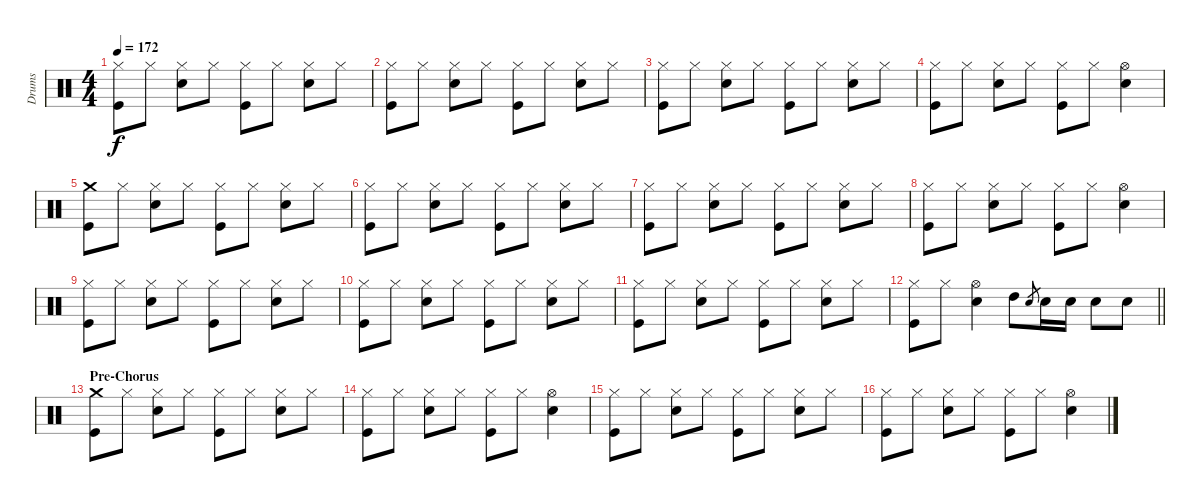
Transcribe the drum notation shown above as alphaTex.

\track ("Drums" "Drums") {instrument percussion}
\staff {score}
\articulation defaults
\ts (4 4)
\tempo 172
\clef neutral
\ks c
("Hi-Hat (closed)" "Kick (hit)").8{dy f} "Hi-Hat (closed)".8 ("Hi-Hat (closed)" "Snare (hit) 2").8 "Hi-Hat (closed)".8 ("Hi-Hat (closed)" "Kick (hit)").8 "Hi-Hat (closed)".8 ("Hi-Hat (closed)" "Snare (hit) 2").8 "Hi-Hat (closed)".8 |
("Hi-Hat (closed)" "Kick (hit)").8 "Hi-Hat (closed)".8 ("Hi-Hat (closed)" "Snare (hit) 2").8 "Hi-Hat (closed)".8 ("Hi-Hat (closed)" "Kick (hit)").8 "Hi-Hat (closed)".8 ("Hi-Hat (closed)" "Snare (hit) 2").8 "Hi-Hat (closed)".8 |
("Hi-Hat (closed)" "Kick (hit)").8 "Hi-Hat (closed)".8 ("Hi-Hat (closed)" "Snare (hit) 2").8 "Hi-Hat (closed)".8 ("Hi-Hat (closed)" "Kick (hit)").8 "Hi-Hat (closed)".8 ("Hi-Hat (closed)" "Snare (hit) 2").8 "Hi-Hat (closed)".8 |
("Hi-Hat (closed)" "Kick (hit)").8 "Hi-Hat (closed)".8 ("Hi-Hat (closed)" "Snare (hit) 2").8 "Hi-Hat (closed)".8 ("Hi-Hat (closed)" "Kick (hit)").8 "Hi-Hat (closed)".8 ("Hi-Hat (open)" "Snare (hit) 2").4 |
("Crash medium (hit)" "Kick (hit)").8 "Hi-Hat (closed)".8 ("Hi-Hat (closed)" "Snare (hit) 2").8 "Hi-Hat (closed)".8 ("Hi-Hat (closed)" "Kick (hit)").8 "Hi-Hat (closed)".8 ("Hi-Hat (closed)" "Snare (hit) 2").8 "Hi-Hat (closed)".8 |
("Hi-Hat (closed)" "Kick (hit)").8 "Hi-Hat (closed)".8 ("Hi-Hat (closed)" "Snare (hit) 2").8 "Hi-Hat (closed)".8 ("Hi-Hat (closed)" "Kick (hit)").8 "Hi-Hat (closed)".8 ("Hi-Hat (closed)" "Snare (hit) 2").8 "Hi-Hat (closed)".8 |
("Hi-Hat (closed)" "Kick (hit)").8 "Hi-Hat (closed)".8 ("Hi-Hat (closed)" "Snare (hit) 2").8 "Hi-Hat (closed)".8 ("Hi-Hat (closed)" "Kick (hit)").8 "Hi-Hat (closed)".8 ("Hi-Hat (closed)" "Snare (hit) 2").8 "Hi-Hat (closed)".8 |
("Hi-Hat (closed)" "Kick (hit)").8 "Hi-Hat (closed)".8 ("Hi-Hat (closed)" "Snare (hit) 2").8 "Hi-Hat (closed)".8 ("Hi-Hat (closed)" "Kick (hit)").8 "Hi-Hat (closed)".8 ("Hi-Hat (open)" "Snare (hit) 2").4 |
("Hi-Hat (closed)" "Kick (hit)").8 "Hi-Hat (closed)".8 ("Hi-Hat (closed)" "Snare (hit) 2").8 "Hi-Hat (closed)".8 ("Hi-Hat (closed)" "Kick (hit)").8 "Hi-Hat (closed)".8 ("Hi-Hat (closed)" "Snare (hit) 2").8 "Hi-Hat (closed)".8 |
("Hi-Hat (closed)" "Kick (hit)").8 "Hi-Hat (closed)".8 ("Hi-Hat (closed)" "Snare (hit) 2").8 "Hi-Hat (closed)".8 ("Hi-Hat (closed)" "Kick (hit)").8 "Hi-Hat (closed)".8 ("Hi-Hat (closed)" "Snare (hit) 2").8 "Hi-Hat (closed)".8 |
("Hi-Hat (closed)" "Kick (hit)").8 "Hi-Hat (closed)".8 ("Hi-Hat (closed)" "Snare (hit) 2").8 "Hi-Hat (closed)".8 ("Hi-Hat (closed)" "Kick (hit)").8 "Hi-Hat (closed)".8 ("Hi-Hat (closed)" "Snare (hit) 2").8 "Hi-Hat (closed)".8 |
\barLineRight lightlight
("Hi-Hat (closed)" "Kick (hit)").8 "Hi-Hat (closed)".8 ("Hi-Hat (open)" "Snare (hit) 2").4 "High Tom (hit)".8 "Snare (hit) 2".8{gr} "Snare (hit) 2".16 "Snare (hit) 2".16 "Snare (hit) 2".8 "Snare (hit) 2".8 |
\section ("" "Pre-Chorus")
("Crash medium (hit)" "Kick (hit)").8 "Hi-Hat (closed)".8 ("Hi-Hat (closed)" "Snare (hit) 2").8 "Hi-Hat (closed)".8 ("Hi-Hat (closed)" "Kick (hit)").8 "Hi-Hat (closed)".8 ("Hi-Hat (closed)" "Snare (hit) 2").8 "Hi-Hat (closed)".8 |
("Hi-Hat (closed)" "Kick (hit)").8 "Hi-Hat (closed)".8 ("Hi-Hat (closed)" "Snare (hit) 2").8 "Hi-Hat (closed)".8 ("Hi-Hat (closed)" "Kick (hit)").8 "Hi-Hat (closed)".8 ("Hi-Hat (open)" "Snare (hit) 2").4 |
("Hi-Hat (closed)" "Kick (hit)").8 "Hi-Hat (closed)".8 ("Hi-Hat (closed)" "Snare (hit) 2").8 "Hi-Hat (closed)".8 ("Hi-Hat (closed)" "Kick (hit)").8 "Hi-Hat (closed)".8 ("Hi-Hat (closed)" "Snare (hit) 2").8 "Hi-Hat (closed)".8 |
("Hi-Hat (closed)" "Kick (hit)").8 "Hi-Hat (closed)".8 ("Hi-Hat (closed)" "Snare (hit) 2").8 "Hi-Hat (closed)".8 ("Hi-Hat (closed)" "Kick (hit)").8 "Hi-Hat (closed)".8 ("Hi-Hat (open)" "Snare (hit) 2").4
